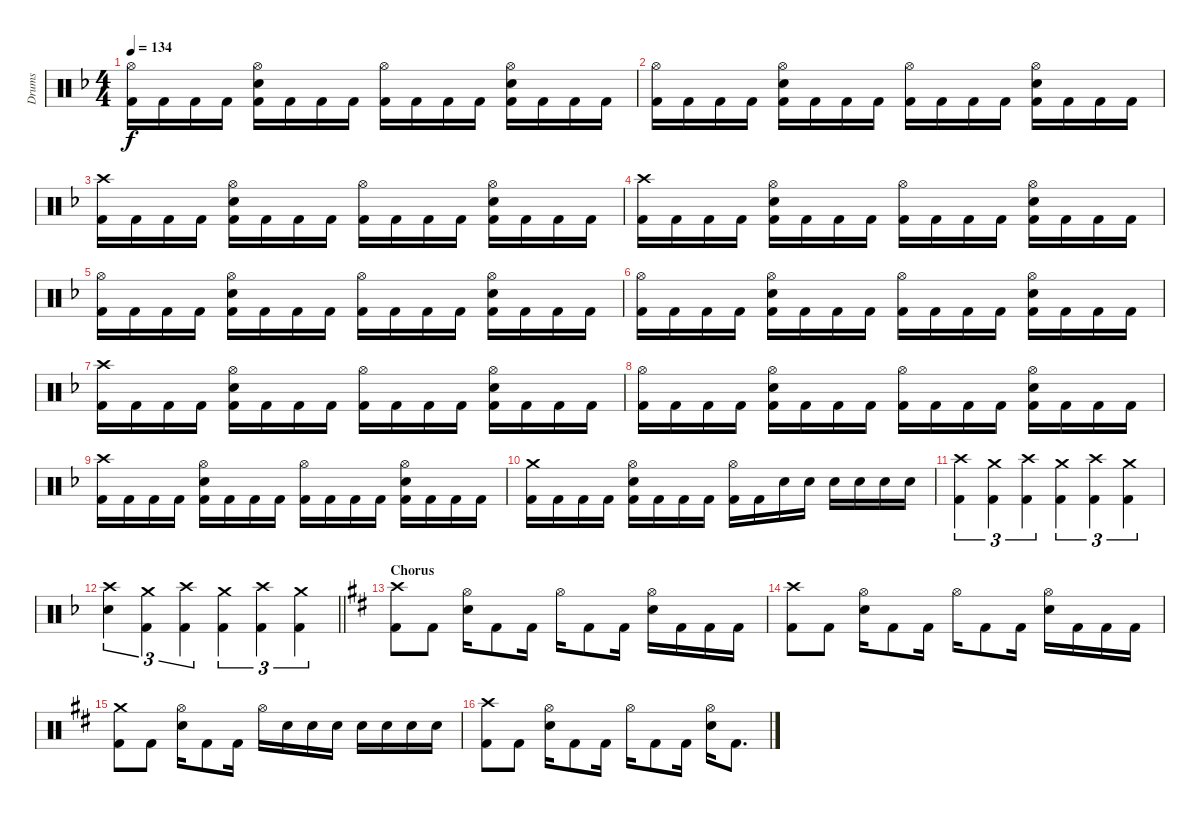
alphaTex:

\track ("Drums" "Drums") {instrument percussion}
\staff {score}
\articulation defaults
\ts (4 4)
\tempo 134
\clef neutral
\ks dminor
("Hi-Hat (open)" "Kick (hit) 2").16{dy f} "Kick (hit) 2".16 "Kick (hit) 2".16 "Kick (hit) 2".16 ("Hi-Hat (open)" "Snare (hit) 2" "Kick (hit) 2").16 "Kick (hit) 2".16 "Kick (hit) 2".16 "Kick (hit) 2".16 ("Hi-Hat (open)" "Kick (hit) 2").16 "Kick (hit) 2".16 "Kick (hit) 2".16 "Kick (hit) 2".16 ("Hi-Hat (open)" "Snare (hit) 2" "Kick (hit) 2").16 "Kick (hit) 2".16 "Kick (hit) 2".16 "Kick (hit) 2".16 |
("Hi-Hat (open)" "Kick (hit) 2").16 "Kick (hit) 2".16 "Kick (hit) 2".16 "Kick (hit) 2".16 ("Hi-Hat (open)" "Snare (hit) 2" "Kick (hit) 2").16 "Kick (hit) 2".16 "Kick (hit) 2".16 "Kick (hit) 2".16 ("Hi-Hat (open)" "Kick (hit) 2").16 "Kick (hit) 2".16 "Kick (hit) 2".16 "Kick (hit) 2".16 ("Hi-Hat (open)" "Snare (hit) 2" "Kick (hit) 2").16 "Kick (hit) 2".16 "Kick (hit) 2".16 "Kick (hit) 2".16 |
("Crash high (hit)" "Kick (hit) 2").16 "Kick (hit) 2".16 "Kick (hit) 2".16 "Kick (hit) 2".16 ("Hi-Hat (open)" "Snare (hit) 2" "Kick (hit) 2").16 "Kick (hit) 2".16 "Kick (hit) 2".16 "Kick (hit) 2".16 ("Hi-Hat (open)" "Kick (hit) 2").16 "Kick (hit) 2".16 "Kick (hit) 2".16 "Kick (hit) 2".16 ("Hi-Hat (open)" "Snare (hit) 2" "Kick (hit) 2").16 "Kick (hit) 2".16 "Kick (hit) 2".16 "Kick (hit) 2".16 |
("Crash high (hit)" "Kick (hit) 2").16 "Kick (hit) 2".16 "Kick (hit) 2".16 "Kick (hit) 2".16 ("Hi-Hat (open)" "Snare (hit) 2" "Kick (hit) 2").16 "Kick (hit) 2".16 "Kick (hit) 2".16 "Kick (hit) 2".16 ("Hi-Hat (open)" "Kick (hit) 2").16 "Kick (hit) 2".16 "Kick (hit) 2".16 "Kick (hit) 2".16 ("Hi-Hat (open)" "Snare (hit) 2" "Kick (hit) 2").16 "Kick (hit) 2".16 "Kick (hit) 2".16 "Kick (hit) 2".16 |
("Hi-Hat (open)" "Kick (hit) 2").16 "Kick (hit) 2".16 "Kick (hit) 2".16 "Kick (hit) 2".16 ("Hi-Hat (open)" "Snare (hit) 2" "Kick (hit) 2").16 "Kick (hit) 2".16 "Kick (hit) 2".16 "Kick (hit) 2".16 ("Hi-Hat (open)" "Kick (hit) 2").16 "Kick (hit) 2".16 "Kick (hit) 2".16 "Kick (hit) 2".16 ("Hi-Hat (open)" "Snare (hit) 2" "Kick (hit) 2").16 "Kick (hit) 2".16 "Kick (hit) 2".16 "Kick (hit) 2".16 |
("Hi-Hat (open)" "Kick (hit) 2").16 "Kick (hit) 2".16 "Kick (hit) 2".16 "Kick (hit) 2".16 ("Hi-Hat (open)" "Snare (hit) 2" "Kick (hit) 2").16 "Kick (hit) 2".16 "Kick (hit) 2".16 "Kick (hit) 2".16 ("Hi-Hat (open)" "Kick (hit) 2").16 "Kick (hit) 2".16 "Kick (hit) 2".16 "Kick (hit) 2".16 ("Hi-Hat (open)" "Snare (hit) 2" "Kick (hit) 2").16 "Kick (hit) 2".16 "Kick (hit) 2".16 "Kick (hit) 2".16 |
("Crash high (hit)" "Kick (hit) 2").16 "Kick (hit) 2".16 "Kick (hit) 2".16 "Kick (hit) 2".16 ("Hi-Hat (open)" "Snare (hit) 2" "Kick (hit) 2").16 "Kick (hit) 2".16 "Kick (hit) 2".16 "Kick (hit) 2".16 ("Hi-Hat (open)" "Kick (hit) 2").16 "Kick (hit) 2".16 "Kick (hit) 2".16 "Kick (hit) 2".16 ("Hi-Hat (open)" "Snare (hit) 2" "Kick (hit) 2").16 "Kick (hit) 2".16 "Kick (hit) 2".16 "Kick (hit) 2".16 |
("Hi-Hat (open)" "Kick (hit) 2").16 "Kick (hit) 2".16 "Kick (hit) 2".16 "Kick (hit) 2".16 ("Hi-Hat (open)" "Snare (hit) 2" "Kick (hit) 2").16 "Kick (hit) 2".16 "Kick (hit) 2".16 "Kick (hit) 2".16 ("Hi-Hat (open)" "Kick (hit) 2").16 "Kick (hit) 2".16 "Kick (hit) 2".16 "Kick (hit) 2".16 ("Hi-Hat (open)" "Snare (hit) 2" "Kick (hit) 2").16 "Kick (hit) 2".16 "Kick (hit) 2".16 "Kick (hit) 2".16 |
("Crash high (hit)" "Kick (hit) 2").16 "Kick (hit) 2".16 "Kick (hit) 2".16 "Kick (hit) 2".16 ("Hi-Hat (open)" "Snare (hit) 2" "Kick (hit) 2").16 "Kick (hit) 2".16 "Kick (hit) 2".16 "Kick (hit) 2".16 ("Hi-Hat (open)" "Kick (hit) 2").16 "Kick (hit) 2".16 "Kick (hit) 2".16 "Kick (hit) 2".16 ("Hi-Hat (open)" "Snare (hit) 2" "Kick (hit) 2").16 "Kick (hit) 2".16 "Kick (hit) 2".16 "Kick (hit) 2".16 |
("Crash medium (hit)" "Kick (hit) 2").16 "Kick (hit) 2".16 "Kick (hit) 2".16 "Kick (hit) 2".16 ("Hi-Hat (open)" "Snare (hit) 2" "Kick (hit) 2").16 "Kick (hit) 2".16 "Kick (hit) 2".16 "Kick (hit) 2".16 ("Hi-Hat (open)" "Kick (hit) 2").16 "Kick (hit) 2".16 "Snare (hit) 2".16 "Snare (hit) 2".16 "Snare (hit) 2".16 "Snare (hit) 2".16 "Snare (hit) 2".16 "Snare (hit) 2".16 |
("Crash high (hit)" "Kick (hit) 2").4{tu (3 2)} ("Crash medium (hit)" "Kick (hit) 2").4{tu (3 2)} ("Crash high (hit)" "Kick (hit) 2").4{tu (3 2)} ("Crash medium (hit)" "Kick (hit) 2").4{tu (3 2)} ("Crash high (hit)" "Kick (hit) 2").4{tu (3 2)} ("Crash medium (hit)" "Kick (hit) 2").4{tu (3 2)} |
\barLineRight lightlight
("Crash high (hit)" "Snare (hit) 2").4{tu (3 2)} ("Crash medium (hit)" "Kick (hit) 2").4{tu (3 2)} ("Crash high (hit)" "Kick (hit) 2").4{tu (3 2)} ("Crash medium (hit)" "Kick (hit) 2").4{tu (3 2)} ("Crash high (hit)" "Kick (hit) 2").4{tu (3 2)} ("Crash medium (hit)" "Kick (hit) 2").4{tu (3 2)} |
\section ("" "Chorus")
\ks bminor
("Crash high (hit)" "Kick (hit) 2").8 "Kick (hit) 2".8 ("Hi-Hat (open)" "Snare (hit) 2").16 "Kick (hit) 2".8 "Kick (hit) 2".16 "Hi-Hat (open)".16 "Kick (hit) 2".8 "Kick (hit) 2".16 ("Hi-Hat (open)" "Snare (hit) 2").16 "Kick (hit) 2".16 "Kick (hit) 2".16 "Kick (hit) 2".16 |
("Crash high (hit)" "Kick (hit) 2").8 "Kick (hit) 2".8 ("Hi-Hat (open)" "Snare (hit) 2").16 "Kick (hit) 2".8 "Kick (hit) 2".16 "Hi-Hat (open)".16 "Kick (hit) 2".8 "Kick (hit) 2".16 ("Hi-Hat (open)" "Snare (hit) 2").16 "Kick (hit) 2".16 "Kick (hit) 2".16 "Kick (hit) 2".16 |
("Crash medium (hit)" "Kick (hit) 2").8 "Kick (hit) 2".8 ("Hi-Hat (open)" "Snare (hit) 2").16 "Kick (hit) 2".8 "Kick (hit) 2".16 "Hi-Hat (open)".16 "Snare (hit) 2".16 "Snare (hit) 2".16 "Snare (hit) 2".16 "Snare (hit) 2".16 "Snare (hit) 2".16 "Snare (hit) 2".16 "Snare (hit) 2".16 |
("Crash high (hit)" "Kick (hit) 2").8 "Kick (hit) 2".8 ("Hi-Hat (open)" "Snare (hit) 2").16 "Kick (hit) 2".8 "Kick (hit) 2".16 "Hi-Hat (open)".16 "Kick (hit) 2".8 "Kick (hit) 2".16 ("Hi-Hat (open)" "Snare (hit) 2").16 "Kick (hit) 2".8{d}
